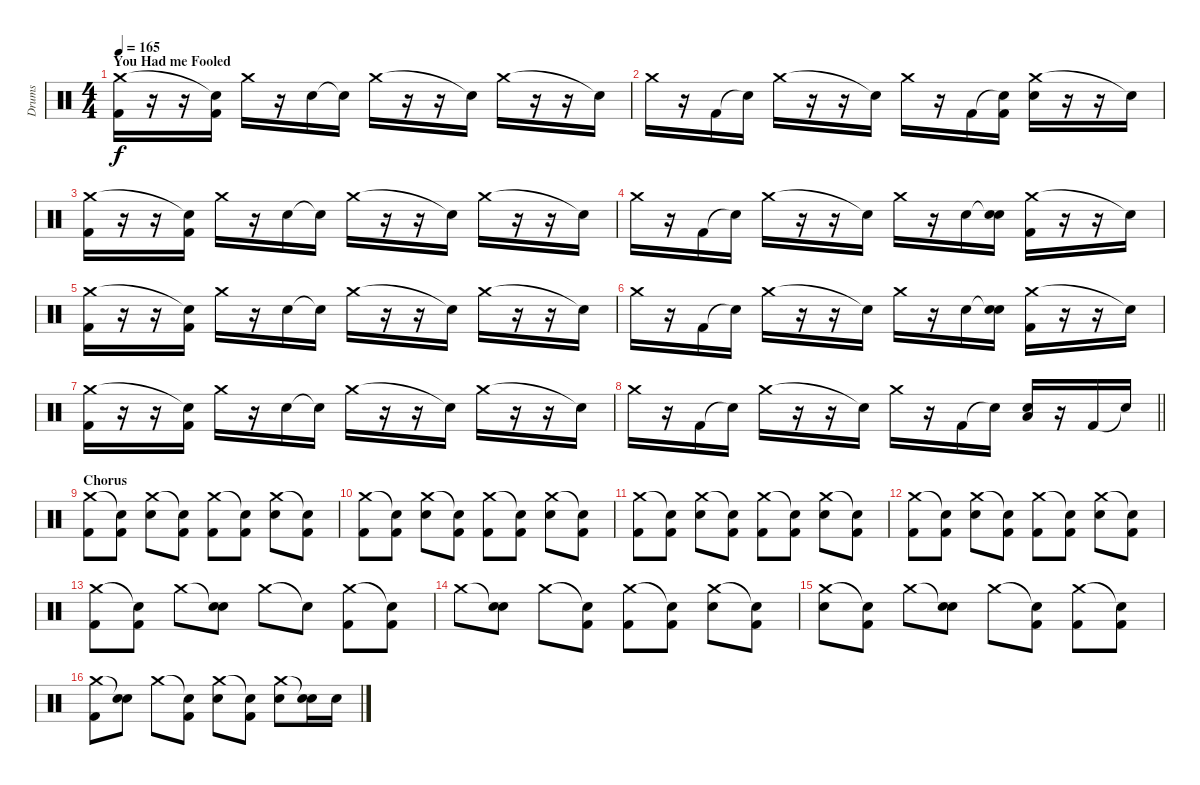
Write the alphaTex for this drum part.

\track ("Drums" "Drums") {instrument percussion}
\staff {score}
\articulation defaults
\ts (4 4)
\section ("" "You Had me Fooled")
\tempo 165
\clef neutral
\ks c
("Crash medium (hit)" "Kick (hit) 2").16{dy f} r.16 r.16 ("Snare (hit)"{t} "Kick (hit) 2").16 "Crash medium (hit)".16 r.16 "Electric Snare (hit)".16 "Snare (hit)"{t}.16 "Crash medium (hit)".16 r.16 r.16 "Snare (hit)"{t}.16 "Crash medium (hit)".16 r.16 r.16 "Snare (hit)"{t}.16 |
"Crash medium (hit)".16 r.16 "Kick (hit) 2".16 "Snare (hit)"{t}.16 "Crash medium (hit)".16 r.16 r.16 "Snare (hit)"{t}.16 "Crash medium (hit)".16 r.16 "Kick (hit) 2".16 ("Snare (hit)"{t} "Kick (hit) 2").16 ("Crash medium (hit)" "Electric Snare (hit)").16 r.16 r.16 "Snare (hit)"{t}.16 |
("Crash medium (hit)" "Kick (hit) 2").16 r.16 r.16 ("Snare (hit)"{t} "Kick (hit) 2").16 "Crash medium (hit)".16 r.16 "Electric Snare (hit)".16 "Snare (hit)"{t}.16 "Crash medium (hit)".16 r.16 r.16 "Snare (hit)"{t}.16 "Crash medium (hit)".16 r.16 r.16 "Snare (hit)"{t}.16 |
"Crash medium (hit)".16 r.16 "Kick (hit) 2".16 "Snare (hit)"{t}.16 "Crash medium (hit)".16 r.16 r.16 "Snare (hit)"{t}.16 "Crash medium (hit)".16 r.16 "Electric Snare (hit)".16 ("Snare (hit)"{t} "Electric Snare (hit)").16 ("Crash medium (hit)" "Kick (hit) 2").16 r.16 r.16 "Snare (hit)"{t}.16 |
("Crash medium (hit)" "Kick (hit) 2").16 r.16 r.16 ("Snare (hit)"{t} "Kick (hit) 2").16 "Crash medium (hit)".16 r.16 "Electric Snare (hit)".16 "Snare (hit)"{t}.16 "Crash medium (hit)".16 r.16 r.16 "Snare (hit)"{t}.16 "Crash medium (hit)".16 r.16 r.16 "Snare (hit)"{t}.16 |
"Crash medium (hit)".16 r.16 "Kick (hit) 2".16 "Snare (hit)"{t}.16 "Crash medium (hit)".16 r.16 r.16 "Snare (hit)"{t}.16 "Crash medium (hit)".16 r.16 "Electric Snare (hit)".16 ("Snare (hit)"{t} "Electric Snare (hit)").16 ("Crash medium (hit)" "Kick (hit) 2").16 r.16 r.16 "Snare (hit)"{t}.16 |
("Crash medium (hit)" "Kick (hit) 2").16 r.16 r.16 ("Snare (hit)"{t} "Kick (hit) 2").16 "Crash medium (hit)".16 r.16 "Electric Snare (hit)".16 "Snare (hit)"{t}.16 "Crash medium (hit)".16 r.16 r.16 "Snare (hit)"{t}.16 "Crash medium (hit)".16 r.16 r.16 "Snare (hit)"{t}.16 |
\barLineRight lightlight "Crash medium (hit)".16
r.16 "Kick (hit) 2".16 "Snare (hit)"{t}.16 "Crash medium (hit)".16 r.16 r.16 "Snare (hit)"{t}.16 "Crash medium (hit)".16 r.16 "Kick (hit) 2".16 "Snare (hit)"{t}.16 ("Low Tom (hit)" "Electric Snare (hit)").16 r.16 "Kick (hit) 2".16 "Snare (hit)"{t}.16 |
\section ("" "Chorus")
("Crash medium (hit)" "Kick (hit) 2").8 ("Snare (hit)"{t} "Kick (hit) 2").8 ("Crash medium (hit)" "Electric Snare (hit)").8 ("Snare (hit)"{t} "Kick (hit) 2").8 ("Crash medium (hit)" "Kick (hit) 2").8 ("Snare (hit)"{t} "Kick (hit) 2").8 ("Crash medium (hit)" "Electric Snare (hit)").8 ("Snare (hit)"{t} "Kick (hit) 2").8 |
("Crash medium (hit)" "Kick (hit) 2").8 ("Snare (hit)"{t} "Kick (hit) 2").8 ("Crash medium (hit)" "Electric Snare (hit)").8 ("Snare (hit)"{t} "Kick (hit) 2").8 ("Crash medium (hit)" "Kick (hit) 2").8 ("Snare (hit)"{t} "Kick (hit) 2").8 ("Crash medium (hit)" "Electric Snare (hit)").8 ("Snare (hit)"{t} "Kick (hit) 2").8 |
("Crash medium (hit)" "Kick (hit) 2").8 ("Snare (hit)"{t} "Kick (hit) 2").8 ("Crash medium (hit)" "Electric Snare (hit)").8 ("Snare (hit)"{t} "Kick (hit) 2").8 ("Crash medium (hit)" "Kick (hit) 2").8 ("Snare (hit)"{t} "Kick (hit) 2").8 ("Crash medium (hit)" "Electric Snare (hit)").8 ("Snare (hit)"{t} "Kick (hit) 2").8 |
("Crash medium (hit)" "Kick (hit) 2").8 ("Snare (hit)"{t} "Kick (hit) 2").8 ("Crash medium (hit)" "Electric Snare (hit)").8 ("Snare (hit)"{t} "Kick (hit) 2").8 ("Crash medium (hit)" "Kick (hit) 2").8 ("Snare (hit)"{t} "Kick (hit) 2").8 ("Crash medium (hit)" "Electric Snare (hit)").8 ("Snare (hit)"{t} "Kick (hit) 2").8 |
("Crash medium (hit)" "Kick (hit) 2").8 ("Snare (hit)"{t} "Kick (hit) 2").8 "Crash medium (hit)".8 ("Snare (hit)"{t} "Electric Snare (hit)").8 "Crash medium (hit)".8 "Snare (hit)"{t}.8 ("Crash medium (hit)" "Kick (hit) 2").8 ("Snare (hit)"{t} "Kick (hit) 2").8 |
"Crash medium (hit)".8 ("Snare (hit)"{t} "Electric Snare (hit)").8 "Crash medium (hit)".8 ("Snare (hit)"{t} "Kick (hit) 2").8 ("Crash medium (hit)" "Kick (hit) 2").8 ("Snare (hit)"{t} "Kick (hit) 2").8 ("Crash medium (hit)" "Electric Snare (hit)").8 ("Snare (hit)"{t} "Kick (hit) 2").8 |
("Crash medium (hit)" "Electric Snare (hit)").8 ("Snare (hit)"{t} "Kick (hit) 2").8 "Crash medium (hit)".8 ("Snare (hit)"{t} "Electric Snare (hit)").8 "Crash medium (hit)".8 ("Snare (hit)"{t} "Kick (hit) 2").8 ("Crash medium (hit)" "Kick (hit) 2").8 ("Snare (hit)"{t} "Kick (hit) 2").8 |
("Crash medium (hit)" "Kick (hit) 2").8 ("Snare (hit)"{t} "Electric Snare (hit)").8 "Crash medium (hit)".8 ("Snare (hit)"{t} "Kick (hit) 2").8 ("Crash medium (hit)" "Electric Snare (hit)").8 ("Snare (hit)"{t} "Kick (hit) 2").8 ("Crash medium (hit)" "Electric Snare (hit)").8 ("Snare (hit)"{t} "Electric Snare (hit)").16 "Electric Snare (hit)".16
